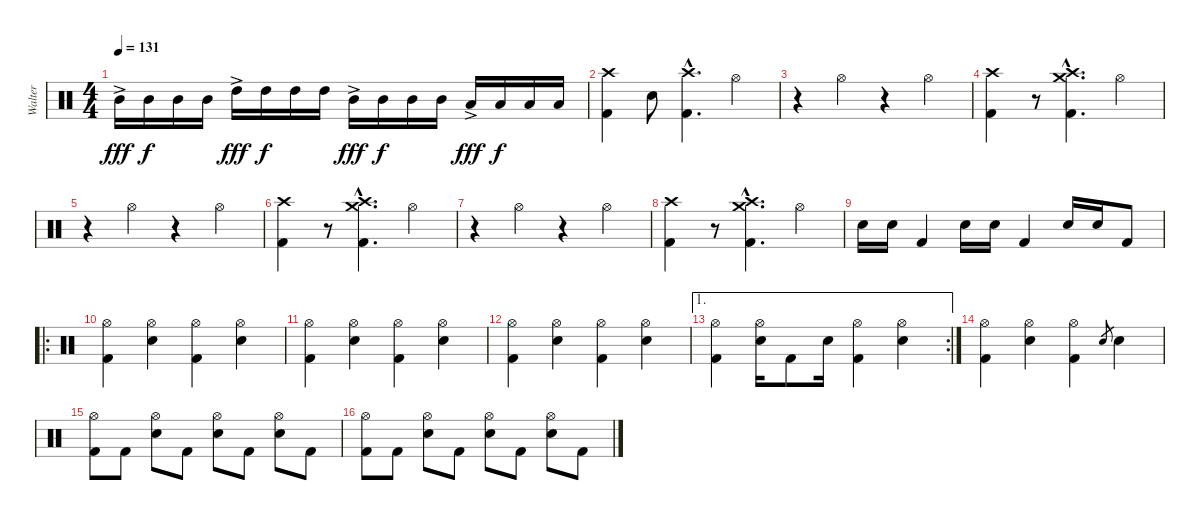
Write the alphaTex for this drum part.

\track ("Walter" "Walter") {instrument percussion}
\staff {score}
\articulation defaults
\ts (4 4)
\tempo 131
\clef neutral
\ks c "Mid Tom (hit)"{ac}.16{dy fff} "Mid Tom (hit)".16{dy f} "Mid Tom (hit)".16 "Mid Tom (hit)".16 "High Tom (hit)"{ac}.16{dy fff} "High Tom (hit)".16{dy f} "High Tom (hit)".16 "High Tom (hit)".16 "Mid Tom (hit)"{ac}.16{dy fff} "Mid Tom (hit)".16{dy f} "Mid Tom (hit)".16 "Mid Tom (hit)".16 "Low Tom (hit)"{ac}.16{dy fff} "Low Tom (hit)".16{dy f} "Low Tom (hit)".16 "Low Tom (hit)".16
|
("Kick (hit) 2" "Crash high (hit)").4 "Electric Snare (hit)".8 ("Kick (hit) 2"{hac} "Crash high (hit)"{hac}).4{d} "Hi-Hat (open)".4 |
r.4 "Hi-Hat (open)".4 r.4 "Hi-Hat (open)".4 |
("Kick (hit) 2" "Crash high (hit)").4 r.8 ("Kick (hit) 2"{hac} "Crash high (hit)"{hac} "Crash medium (hit)"{hac}).4{d} "Hi-Hat (open)".4 |
r.4 "Hi-Hat (open)".4 r.4 "Hi-Hat (open)".4 |
("Kick (hit) 2" "Crash high (hit)").4 r.8 ("Kick (hit) 2"{hac} "Crash high (hit)"{hac} "Crash medium (hit)"{hac}).4{d} "Hi-Hat (open)".4 |
r.4 "Hi-Hat (open)".4 r.4 "Hi-Hat (open)".4 |
("Kick (hit) 2" "Crash high (hit)").4 r.8 ("Kick (hit) 2"{hac} "Crash high (hit)"{hac} "Crash medium (hit)"{hac}).4{d} "Hi-Hat (open)".4 |
"Electric Snare (hit)".16 "Electric Snare (hit)".16 "Kick (hit) 2".4 "Electric Snare (hit)".16 "Electric Snare (hit)".16 "Kick (hit) 2".4 "Electric Snare (hit)".16 "Electric Snare (hit)".16 "Kick (hit) 2".8 |
\ro
("Hi-Hat (open)" "Kick (hit) 2").4 ("Hi-Hat (open)" "Electric Snare (hit)").4 ("Hi-Hat (open)" "Kick (hit) 2").4 ("Hi-Hat (open)" "Electric Snare (hit)").4 |
("Hi-Hat (open)" "Kick (hit) 2").4 ("Hi-Hat (open)" "Electric Snare (hit)").4 ("Hi-Hat (open)" "Kick (hit) 2").4 ("Hi-Hat (open)" "Electric Snare (hit)").4 |
("Hi-Hat (open)" "Kick (hit) 2").4 ("Hi-Hat (open)" "Electric Snare (hit)").4 ("Hi-Hat (open)" "Kick (hit) 2").4 ("Hi-Hat (open)" "Electric Snare (hit)").4 |
\ae 1
\rc 2
("Hi-Hat (open)" "Kick (hit) 2").4 ("Hi-Hat (open)" "Electric Snare (hit)").16 "Kick (hit) 2".8 "Electric Snare (hit)".16 ("Hi-Hat (open)" "Kick (hit) 2").4 ("Hi-Hat (open)" "Electric Snare (hit)").4 |
("Hi-Hat (open)" "Kick (hit) 2").4 ("Hi-Hat (open)" "Electric Snare (hit)").4 ("Hi-Hat (open)" "Kick (hit) 2").4 "Electric Snare (hit)".8{gr} "Electric Snare (hit)".4 |
("Hi-Hat (open)" "Kick (hit) 2").8 "Kick (hit) 2".8 ("Hi-Hat (open)" "Electric Snare (hit)").8 "Kick (hit) 2".8 ("Hi-Hat (open)" "Electric Snare (hit)").8 "Kick (hit) 2".8 ("Hi-Hat (open)" "Electric Snare (hit)").8 "Kick (hit) 2".8 |
("Hi-Hat (open)" "Kick (hit) 2").8 "Kick (hit) 2".8 ("Hi-Hat (open)" "Electric Snare (hit)").8 "Kick (hit) 2".8 ("Hi-Hat (open)" "Electric Snare (hit)").8 "Kick (hit) 2".8 ("Hi-Hat (open)" "Electric Snare (hit)").8 "Kick (hit) 2".8
